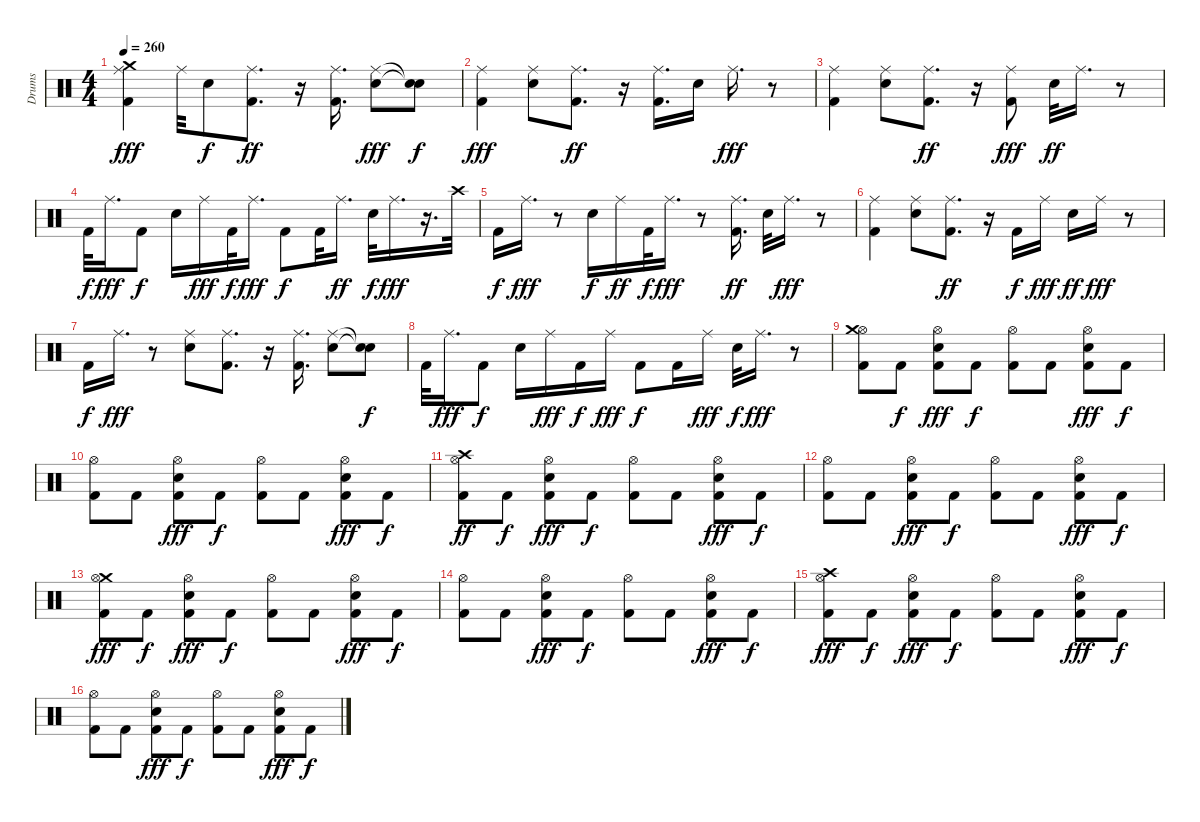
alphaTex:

\track ("Drums" "Drums") {instrument percussion}
\staff {score}
\articulation defaults
\ts (4 4)
\tempo 260
\clef neutral
\ks c
("Crash medium (hit)" "Kick (hit) 2" "Ride (middle)").4{dy fff} "Ride (middle)".32 "Snare (hit) 2".8{dy f} ("Kick (hit) 2" "Ride (middle)").8{d dy ff} r.16 ("Ride (middle)" "Kick (hit) 2").16{d} ("Snare (hit) 2" "Ride (middle)").8{dy fff} ("Snare (hit)"{t} "Snare (hit)"{t}).8{dy f} |
("Kick (hit) 2" "Ride (middle)").4{dy fff} ("Snare (hit) 2" "Ride (middle)").8 ("Kick (hit) 2" "Ride (middle)").8{d dy ff} r.16 ("Ride (middle)" "Kick (hit) 2").16{d} "Snare (hit) 2".16 "Ride (middle)".16{d dy fff} r.8 |
("Kick (hit) 2" "Ride (middle)").4 ("Snare (hit) 2" "Ride (middle)").8 ("Kick (hit) 2" "Ride (middle)").8{d dy ff} r.16 ("Kick (hit) 2" "Ride (middle)").8{dy fff} "Snare (hit) 2".32{dy ff} "Ride (middle)".16{d} r.8 |
"Kick (hit) 2".32{dy f} "Ride (middle)".16{d dy fff} "Kick (hit) 2".8{dy f} "Snare (hit) 2".16 "Ride (middle)".16{dy fff} "Kick (hit) 2".32{dy f} "Ride (middle)".16{d dy fff} "Kick (hit) 2".8{dy f} "Kick (hit) 2".32 "Ride (middle)".16{d dy ff} "Snare (hit) 2".32{dy f} "Ride (middle)".16{d dy fff} r.16{d} "Crash high (hit)".32 |
"Kick (hit) 2".16{dy f} "Ride (middle)".16{d dy fff} r.8 "Snare (hit) 2".16{dy f} "Ride (middle)".16{dy ff} "Kick (hit) 2".32{dy f} "Ride (middle)".16{d dy fff} r.8 ("Ride (middle)" "Kick (hit) 2").16{d dy ff} "Snare (hit) 2".32 "Ride (middle)".16{d dy fff} r.8 |
("Kick (hit) 2" "Ride (middle)").4 ("Snare (hit) 2" "Ride (middle)").8 ("Kick (hit) 2" "Ride (middle)").8{d dy ff} r.16 "Kick (hit) 2".16{dy f} "Ride (middle)".16{dy fff} "Snare (hit) 2".16{dy ff} "Ride (middle)".16{dy fff} r.8 |
"Kick (hit) 2".16{dy f} "Ride (middle)".16{d dy fff} r.8 ("Snare (hit) 2" "Ride (middle)").8 ("Kick (hit) 2" "Ride (middle)").8{d} r.16 ("Ride (middle)" "Kick (hit) 2").16{d} ("Snare (hit) 2" "Ride (middle)").8 ("Snare (hit)"{t} "Snare (hit)"{t}).8{dy f} |
"Kick (hit) 2".32 "Ride (middle)".16{d dy fff} "Kick (hit) 2".8{dy f} "Snare (hit) 2".16 "Ride (middle)".16{dy fff} "Kick (hit) 2".16{dy f} "Ride (middle)".16{dy fff} "Kick (hit) 2".8{dy f} "Kick (hit) 2".16 "Ride (middle)".16{dy fff} "Snare (hit) 2".32{dy f} "Ride (middle)".16{d dy fff} r.8 |
("Hi-Hat (open)" "Kick (hit) 2" "Crash medium (hit)").8 "Kick (hit) 2".8{dy f} ("Hi-Hat (open)" "Snare (hit) 2" "Kick (hit) 2").8{dy fff} "Kick (hit) 2".8{dy f} ("Hi-Hat (open)" "Kick (hit) 2").8 "Kick (hit) 2".8 ("Hi-Hat (open)" "Snare (hit) 2" "Kick (hit) 2").8{dy fff} "Kick (hit) 2".8{dy f} |
("Hi-Hat (open)" "Kick (hit) 2").8 "Kick (hit) 2".8 ("Hi-Hat (open)" "Snare (hit) 2" "Kick (hit) 2").8{dy fff} "Kick (hit) 2".8{dy f} ("Hi-Hat (open)" "Kick (hit) 2").8 "Kick (hit) 2".8 ("Hi-Hat (open)" "Snare (hit) 2" "Kick (hit) 2").8{dy fff} "Kick (hit) 2".8{dy f} |
("Hi-Hat (open)" "Kick (hit) 2" "Crash high (hit)").8{dy ff} "Kick (hit) 2".8{dy f} ("Hi-Hat (open)" "Snare (hit) 2" "Kick (hit) 2").8{dy fff} "Kick (hit) 2".8{dy f} ("Hi-Hat (open)" "Kick (hit) 2").8 "Kick (hit) 2".8 ("Hi-Hat (open)" "Snare (hit) 2" "Kick (hit) 2").8{dy fff} "Kick (hit) 2".8{dy f} |
("Hi-Hat (open)" "Kick (hit) 2").8 "Kick (hit) 2".8 ("Hi-Hat (open)" "Snare (hit) 2" "Kick (hit) 2").8{dy fff} "Kick (hit) 2".8{dy f} ("Hi-Hat (open)" "Kick (hit) 2").8 "Kick (hit) 2".8 ("Hi-Hat (open)" "Snare (hit) 2" "Kick (hit) 2").8{dy fff} "Kick (hit) 2".8{dy f} |
("Crash medium (hit)" "Hi-Hat (open)" "Kick (hit) 2").8{dy fff} "Kick (hit) 2".8{dy f} ("Hi-Hat (open)" "Snare (hit) 2" "Kick (hit) 2").8{dy fff} "Kick (hit) 2".8{dy f} ("Hi-Hat (open)" "Kick (hit) 2").8 "Kick (hit) 2".8 ("Hi-Hat (open)" "Snare (hit) 2" "Kick (hit) 2").8{dy fff} "Kick (hit) 2".8{dy f} |
("Hi-Hat (open)" "Kick (hit) 2").8 "Kick (hit) 2".8 ("Hi-Hat (open)" "Snare (hit) 2" "Kick (hit) 2").8{dy fff} "Kick (hit) 2".8{dy f} ("Hi-Hat (open)" "Kick (hit) 2").8 "Kick (hit) 2".8 ("Hi-Hat (open)" "Snare (hit) 2" "Kick (hit) 2").8{dy fff} "Kick (hit) 2".8{dy f} |
("Crash high (hit)" "Hi-Hat (open)" "Kick (hit) 2").8{dy fff} "Kick (hit) 2".8{dy f} ("Hi-Hat (open)" "Snare (hit) 2" "Kick (hit) 2").8{dy fff} "Kick (hit) 2".8{dy f} ("Hi-Hat (open)" "Kick (hit) 2").8 "Kick (hit) 2".8 ("Hi-Hat (open)" "Snare (hit) 2" "Kick (hit) 2").8{dy fff} "Kick (hit) 2".8{dy f} |
("Hi-Hat (open)" "Kick (hit) 2").8 "Kick (hit) 2".8 ("Hi-Hat (open)" "Snare (hit) 2" "Kick (hit) 2").8{dy fff} "Kick (hit) 2".8{dy f} ("Hi-Hat (open)" "Kick (hit) 2").8 "Kick (hit) 2".8 ("Hi-Hat (open)" "Snare (hit) 2" "Kick (hit) 2").8{dy fff} "Kick (hit) 2".8{dy f}
